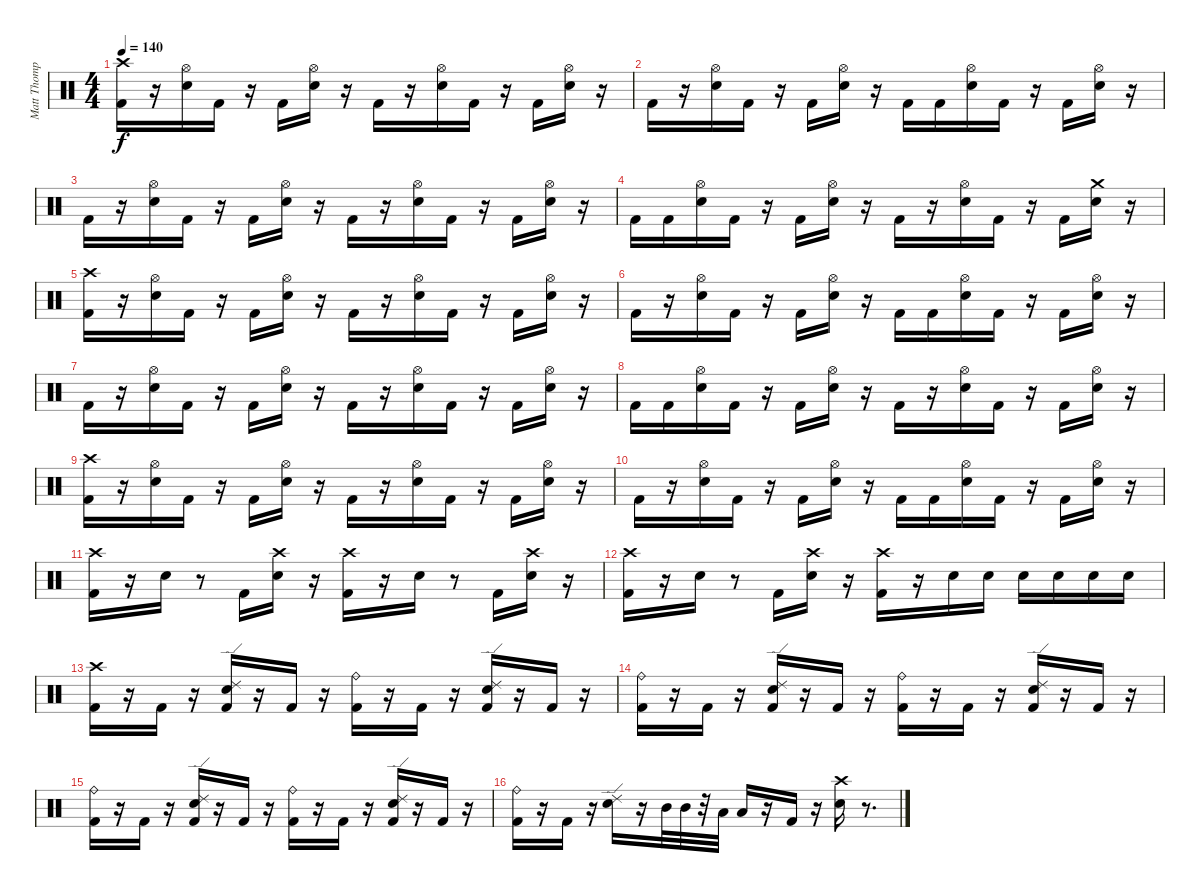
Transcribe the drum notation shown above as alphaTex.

\track ("Matt Thompson" "Matt Thomp") {instrument percussion}
\staff {score}
\articulation defaults
\ts (4 4)
\tempo 140
\clef neutral
\ks c
("Crash high (hit)" "Kick (hit) 2").16{dy f} r.16 ("Hi-Hat (open)" "Snare (hit) 2").16 "Kick (hit) 2".16 r.16 "Kick (hit) 2".16 ("Hi-Hat (open)" "Snare (hit) 2").16 r.16 "Kick (hit) 2".16 r.16 ("Hi-Hat (open)" "Snare (hit) 2").16 "Kick (hit) 2".16 r.16 "Kick (hit) 2".16 ("Hi-Hat (open)" "Snare (hit) 2").16 r.16 |
"Kick (hit) 2".16 r.16 ("Hi-Hat (open)" "Snare (hit) 2").16 "Kick (hit) 2".16 r.16 "Kick (hit) 2".16 ("Hi-Hat (open)" "Snare (hit) 2").16 r.16 "Kick (hit) 2".16 "Kick (hit) 2".16 ("Hi-Hat (open)" "Snare (hit) 2").16 "Kick (hit) 2".16 r.16 "Kick (hit) 2".16 ("Hi-Hat (open)" "Snare (hit) 2").16 r.16 |
"Kick (hit) 2".16 r.16 ("Hi-Hat (open)" "Snare (hit) 2").16 "Kick (hit) 2".16 r.16 "Kick (hit) 2".16 ("Hi-Hat (open)" "Snare (hit) 2").16 r.16 "Kick (hit) 2".16 r.16 ("Hi-Hat (open)" "Snare (hit) 2").16 "Kick (hit) 2".16 r.16 "Kick (hit) 2".16 ("Hi-Hat (open)" "Snare (hit) 2").16 r.16 |
"Kick (hit) 2".16 "Kick (hit) 2".16 ("Hi-Hat (open)" "Snare (hit) 2").16 "Kick (hit) 2".16 r.16 "Kick (hit) 2".16 ("Hi-Hat (open)" "Snare (hit) 2").16 r.16 "Kick (hit) 2".16 r.16 ("Hi-Hat (open)" "Snare (hit) 2").16 "Kick (hit) 2".16 r.16 "Kick (hit) 2".16 ("Crash medium (hit)" "Snare (hit) 2").16 r.16 |
("Crash high (hit)" "Kick (hit) 2").16 r.16 ("Hi-Hat (open)" "Snare (hit) 2").16 "Kick (hit) 2".16 r.16 "Kick (hit) 2".16 ("Hi-Hat (open)" "Snare (hit) 2").16 r.16 "Kick (hit) 2".16 r.16 ("Hi-Hat (open)" "Snare (hit) 2").16 "Kick (hit) 2".16 r.16 "Kick (hit) 2".16 ("Hi-Hat (open)" "Snare (hit) 2").16 r.16 |
"Kick (hit) 2".16 r.16 ("Hi-Hat (open)" "Snare (hit) 2").16 "Kick (hit) 2".16 r.16 "Kick (hit) 2".16 ("Hi-Hat (open)" "Snare (hit) 2").16 r.16 "Kick (hit) 2".16 "Kick (hit) 2".16 ("Hi-Hat (open)" "Snare (hit) 2").16 "Kick (hit) 2".16 r.16 "Kick (hit) 2".16 ("Hi-Hat (open)" "Snare (hit) 2").16 r.16 |
"Kick (hit) 2".16 r.16 ("Hi-Hat (open)" "Snare (hit) 2").16 "Kick (hit) 2".16 r.16 "Kick (hit) 2".16 ("Hi-Hat (open)" "Snare (hit) 2").16 r.16 "Kick (hit) 2".16 r.16 ("Hi-Hat (open)" "Snare (hit) 2").16 "Kick (hit) 2".16 r.16 "Kick (hit) 2".16 ("Hi-Hat (open)" "Snare (hit) 2").16 r.16 |
"Kick (hit) 2".16 "Kick (hit) 2".16 ("Hi-Hat (open)" "Snare (hit) 2").16 "Kick (hit) 2".16 r.16 "Kick (hit) 2".16 ("Hi-Hat (open)" "Snare (hit) 2").16 r.16 "Kick (hit) 2".16 r.16 ("Hi-Hat (open)" "Snare (hit) 2").16 "Kick (hit) 2".16 r.16 "Kick (hit) 2".16 ("Hi-Hat (open)" "Snare (hit) 2").16 r.16 |
("Crash high (hit)" "Kick (hit) 2").16 r.16 ("Hi-Hat (open)" "Snare (hit) 2").16 "Kick (hit) 2".16 r.16 "Kick (hit) 2".16 ("Hi-Hat (open)" "Snare (hit) 2").16 r.16 "Kick (hit) 2".16 r.16 ("Hi-Hat (open)" "Snare (hit) 2").16 "Kick (hit) 2".16 r.16 "Kick (hit) 2".16 ("Hi-Hat (open)" "Snare (hit) 2").16 r.16 |
"Kick (hit) 2".16 r.16 ("Hi-Hat (open)" "Snare (hit) 2").16 "Kick (hit) 2".16 r.16 "Kick (hit) 2".16 ("Hi-Hat (open)" "Snare (hit) 2").16 r.16 "Kick (hit) 2".16 "Kick (hit) 2".16 ("Hi-Hat (open)" "Snare (hit) 2").16 "Kick (hit) 2".16 r.16 "Kick (hit) 2".16 ("Hi-Hat (open)" "Snare (hit) 2").16 r.16 |
("Crash high (hit)" "Kick (hit) 2").16 r.16 "Snare (hit) 2".16 r.8 "Kick (hit) 2".16 ("Crash high (hit)" "Snare (hit) 2").16 r.16 ("Crash high (hit)" "Kick (hit) 2").16 r.16 "Snare (hit) 2".16 r.8 "Kick (hit) 2".16 ("Crash high (hit)" "Snare (hit) 2").16 r.16 |
("Crash high (hit)" "Kick (hit) 2").16 r.16 "Snare (hit) 2".16 r.8 "Kick (hit) 2".16 ("Crash high (hit)" "Snare (hit) 2").16 r.16 ("Crash high (hit)" "Kick (hit) 2").16 r.16 "Snare (hit) 2".16 "Snare (hit) 2".16 "Snare (hit) 2".16 "Snare (hit) 2".16 "Snare (hit) 2".16 "Snare (hit) 2".16 |
("Crash high (hit)" "Kick (hit) 2").16 r.16 "Kick (hit) 2".16 r.16 ("Ride (edge) 2" "Snare (hit) 2" "Kick (hit) 2").16 r.16 "Kick (hit) 2".16 r.16 ("Ride (bell)" "Kick (hit) 2").16 r.16 "Kick (hit) 2".16 r.16 ("Ride (edge) 2" "Snare (hit) 2" "Kick (hit) 2").16 r.16 "Kick (hit) 2".16 r.16 |
("Ride (bell)" "Kick (hit) 2").16 r.16 "Kick (hit) 2".16 r.16 ("Ride (edge) 2" "Snare (hit) 2" "Kick (hit) 2").16 r.16 "Kick (hit) 2".16 r.16 ("Ride (bell)" "Kick (hit) 2").16 r.16 "Kick (hit) 2".16 r.16 ("Ride (edge) 2" "Snare (hit) 2" "Kick (hit) 2").16 r.16 "Kick (hit) 2".16 r.16 |
("Ride (bell)" "Kick (hit) 2").16 r.16 "Kick (hit) 2".16 r.16 ("Ride (edge) 2" "Snare (hit) 2" "Kick (hit) 2").16 r.16 "Kick (hit) 2".16 r.16 ("Ride (bell)" "Kick (hit) 2").16 r.16 "Kick (hit) 2".16 r.16 ("Ride (edge) 2" "Snare (hit) 2" "Kick (hit) 2").16 r.16 "Kick (hit) 2".16 r.16 |
("Ride (bell)" "Kick (hit) 2").16 r.16 "Kick (hit) 2".16 r.16 ("Ride (edge) 2" "Snare (hit) 2").16 r.16 "Mid Tom (hit)".32 "Mid Tom (hit)".32 r.32 "Low Tom (hit)".32 "Low Tom (hit)".16 r.16 "Kick (hit) 2".16 r.16 ("Crash high (hit)" "Snare (hit) 2").16 r.8{d}
